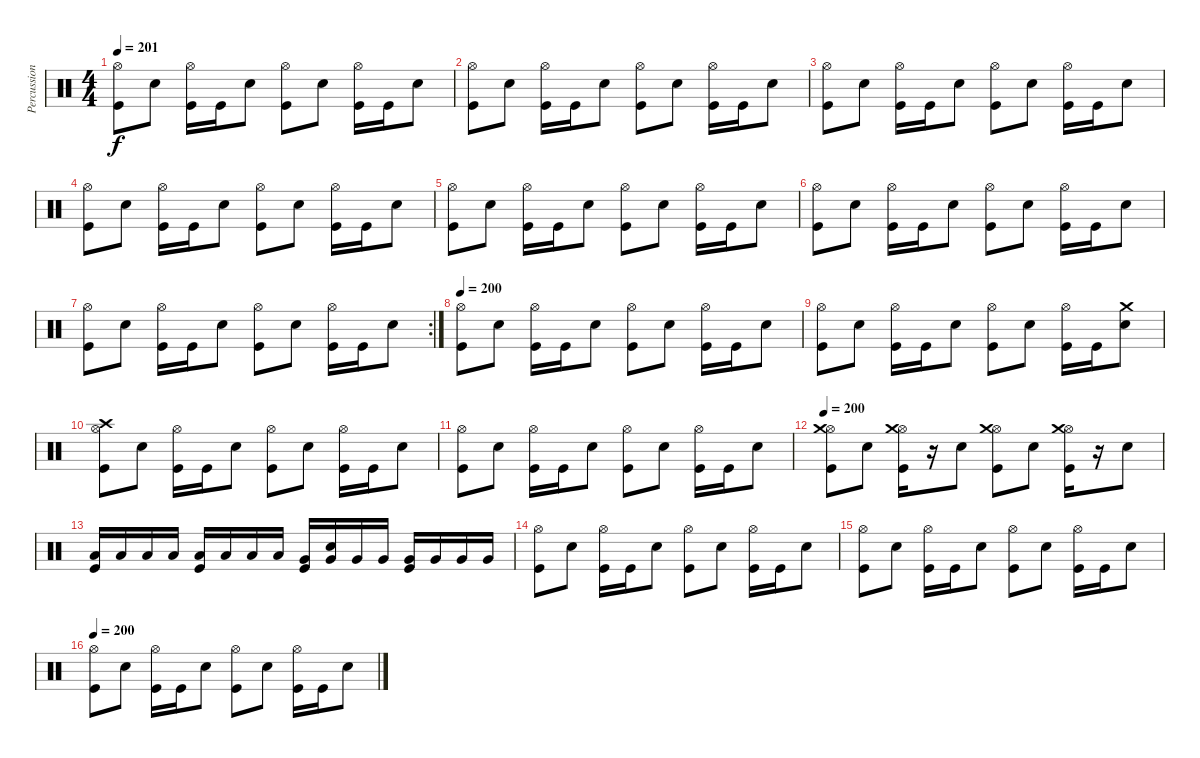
\track ("Percussion" "Percussion") {instrument percussion}
\staff {score}
\articulation defaults
\ts (4 4)
\tempo 201
\clef neutral
\ks c
("Hi-Hat (open)" "Kick (hit)").8{dy f} "Electric Snare (hit)".8 ("Hi-Hat (open)" "Kick (hit)").16 "Kick (hit)".16 "Electric Snare (hit)".8 ("Hi-Hat (open)" "Kick (hit)").8 "Electric Snare (hit)".8 ("Hi-Hat (open)" "Kick (hit)").16 "Kick (hit)".16 "Electric Snare (hit)".8 |
("Hi-Hat (open)" "Kick (hit)").8 "Electric Snare (hit)".8 ("Hi-Hat (open)" "Kick (hit)").16 "Kick (hit)".16 "Electric Snare (hit)".8 ("Hi-Hat (open)" "Kick (hit)").8 "Electric Snare (hit)".8 ("Hi-Hat (open)" "Kick (hit)").16 "Kick (hit)".16 "Electric Snare (hit)".8 |
("Hi-Hat (open)" "Kick (hit)").8 "Electric Snare (hit)".8 ("Hi-Hat (open)" "Kick (hit)").16 "Kick (hit)".16 "Electric Snare (hit)".8 ("Hi-Hat (open)" "Kick (hit)").8 "Electric Snare (hit)".8 ("Hi-Hat (open)" "Kick (hit)").16 "Kick (hit)".16 "Electric Snare (hit)".8 |
("Hi-Hat (open)" "Kick (hit)").8 "Electric Snare (hit)".8 ("Hi-Hat (open)" "Kick (hit)").16 "Kick (hit)".16 "Electric Snare (hit)".8 ("Hi-Hat (open)" "Kick (hit)").8 "Electric Snare (hit)".8 ("Hi-Hat (open)" "Kick (hit)").16 "Kick (hit)".16 "Electric Snare (hit)".8 |
("Hi-Hat (open)" "Kick (hit)").8 "Electric Snare (hit)".8 ("Hi-Hat (open)" "Kick (hit)").16 "Kick (hit)".16 "Electric Snare (hit)".8 ("Hi-Hat (open)" "Kick (hit)").8 "Electric Snare (hit)".8 ("Hi-Hat (open)" "Kick (hit)").16 "Kick (hit)".16 "Electric Snare (hit)".8 |
("Hi-Hat (open)" "Kick (hit)").8 "Electric Snare (hit)".8 ("Hi-Hat (open)" "Kick (hit)").16 "Kick (hit)".16 "Electric Snare (hit)".8 ("Hi-Hat (open)" "Kick (hit)").8 "Electric Snare (hit)".8 ("Hi-Hat (open)" "Kick (hit)").16 "Kick (hit)".16 "Electric Snare (hit)".8 |
\rc 2
("Hi-Hat (open)" "Kick (hit)").8 "Electric Snare (hit)".8 ("Hi-Hat (open)" "Kick (hit)").16 "Kick (hit)".16 "Electric Snare (hit)".8 ("Hi-Hat (open)" "Kick (hit)").8 "Electric Snare (hit)".8 ("Hi-Hat (open)" "Kick (hit)").16 "Kick (hit)".16 "Electric Snare (hit)".8 |
\tempo 200
("Hi-Hat (open)" "Kick (hit)").8 "Electric Snare (hit)".8 ("Hi-Hat (open)" "Kick (hit)").16 "Kick (hit)".16 "Electric Snare (hit)".8 ("Hi-Hat (open)" "Kick (hit)").8 "Electric Snare (hit)".8 ("Hi-Hat (open)" "Kick (hit)").16 "Kick (hit)".16 "Electric Snare (hit)".8 |
("Hi-Hat (open)" "Kick (hit)").8 "Electric Snare (hit)".8 ("Hi-Hat (open)" "Kick (hit)").16 "Kick (hit)".16 "Electric Snare (hit)".8 ("Hi-Hat (open)" "Kick (hit)").8 "Electric Snare (hit)".8 ("Hi-Hat (open)" "Kick (hit)").16 "Kick (hit)".16 ("Electric Snare (hit)" "Crash medium (hit)").8 |
("Hi-Hat (open)" "Kick (hit)" "Crash high (hit)").8 "Electric Snare (hit)".8 ("Hi-Hat (open)" "Kick (hit)").16 "Kick (hit)".16 "Electric Snare (hit)".8 ("Hi-Hat (open)" "Kick (hit)").8 "Electric Snare (hit)".8 ("Hi-Hat (open)" "Kick (hit)").16 "Kick (hit)".16 "Electric Snare (hit)".8 |
("Hi-Hat (open)" "Kick (hit)").8 "Electric Snare (hit)".8 ("Hi-Hat (open)" "Kick (hit)").16 "Kick (hit)".16 "Electric Snare (hit)".8 ("Hi-Hat (open)" "Kick (hit)").8 "Electric Snare (hit)".8 ("Hi-Hat (open)" "Kick (hit)").16 "Kick (hit)".16 "Electric Snare (hit)".8 |
\tempo 200
("Hi-Hat (open)" "Kick (hit)" "Crash medium (hit)").8 "Electric Snare (hit)".8 ("Hi-Hat (open)" "Kick (hit)" "Crash medium (hit)").16 r.16 "Electric Snare (hit)".8 ("Hi-Hat (open)" "Kick (hit)" "Crash medium (hit)").8 "Electric Snare (hit)".8 ("Hi-Hat (open)" "Kick (hit)" "Crash medium (hit)").16 r.16 "Electric Snare (hit)".8 |
("Low Tom (hit)" "Kick (hit)").16 "Low Tom (hit)".16 "Low Tom (hit)".16 "Low Tom (hit)".16 ("Low Tom (hit)" "Kick (hit)").16 "Low Tom (hit)".16 "Low Tom (hit)".16 "Low Tom (hit)".16 ("Very Low Tom (hit)" "Kick (hit)").16 ("Very Low Tom (hit)" "Snare (hit)").16 "Very Low Tom (hit)".16 "Very Low Tom (hit)".16 ("Very Low Tom (hit)" "Kick (hit)").16 "Very Low Tom (hit)".16 "Very Low Tom (hit)".16 "Very Low Tom (hit)".16 |
("Hi-Hat (open)" "Kick (hit)").8 "Electric Snare (hit)".8 ("Hi-Hat (open)" "Kick (hit)").16 "Kick (hit)".16 "Electric Snare (hit)".8 ("Hi-Hat (open)" "Kick (hit)").8 "Electric Snare (hit)".8 ("Hi-Hat (open)" "Kick (hit)").16 "Kick (hit)".16 "Electric Snare (hit)".8 |
("Hi-Hat (open)" "Kick (hit)").8 "Electric Snare (hit)".8 ("Hi-Hat (open)" "Kick (hit)").16 "Kick (hit)".16 "Electric Snare (hit)".8 ("Hi-Hat (open)" "Kick (hit)").8 "Electric Snare (hit)".8 ("Hi-Hat (open)" "Kick (hit)").16 "Kick (hit)".16 "Electric Snare (hit)".8 |
\tempo 200
("Hi-Hat (open)" "Kick (hit)").8 "Electric Snare (hit)".8 ("Hi-Hat (open)" "Kick (hit)").16 "Kick (hit)".16 "Electric Snare (hit)".8 ("Hi-Hat (open)" "Kick (hit)").8 "Electric Snare (hit)".8 ("Hi-Hat (open)" "Kick (hit)").16 "Kick (hit)".16 "Electric Snare (hit)".8
